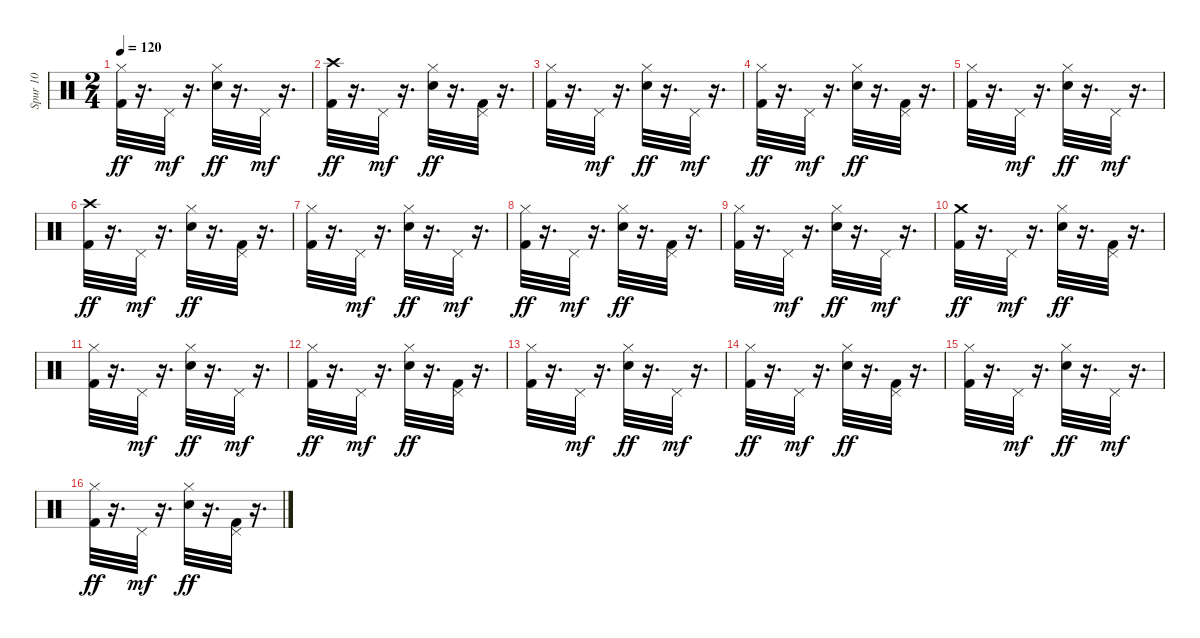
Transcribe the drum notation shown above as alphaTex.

\track ("Spur 10" "Spur 10") {instrument percussion}
\staff {score}
\articulation defaults
\ts (2 4)
\tempo 120
\clef neutral
\ks c
("Hi-Hat (closed)" "Kick (hit) 2").32{dy ff} r.16{d} "Pedal Hi-Hat (hit)".32{dy mf} r.16{d} ("Hi-Hat (closed)" "Snare (hit) 2").32{dy ff} r.16{d} "Pedal Hi-Hat (hit)".32{dy mf} r.16{d} |
("Crash high (hit)" "Kick (hit) 2").32{dy ff} r.16{d} "Pedal Hi-Hat (hit)".32{dy mf} r.16{d} ("Hi-Hat (closed)" "Snare (hit) 2").32{dy ff} r.16{d} ("Pedal Hi-Hat (hit)" "Kick (hit) 2").32 r.16{d} |
("Hi-Hat (closed)" "Kick (hit) 2").32 r.16{d} "Pedal Hi-Hat (hit)".32{dy mf} r.16{d} ("Hi-Hat (closed)" "Snare (hit) 2").32{dy ff} r.16{d} "Pedal Hi-Hat (hit)".32{dy mf} r.16{d} |
("Hi-Hat (closed)" "Kick (hit) 2").32{dy ff} r.16{d} "Pedal Hi-Hat (hit)".32{dy mf} r.16{d} ("Hi-Hat (closed)" "Snare (hit) 2").32{dy ff} r.16{d} ("Pedal Hi-Hat (hit)" "Kick (hit) 2").32 r.16{d} |
("Hi-Hat (closed)" "Kick (hit) 2").32 r.16{d} "Pedal Hi-Hat (hit)".32{dy mf} r.16{d} ("Hi-Hat (closed)" "Snare (hit) 2").32{dy ff} r.16{d} "Pedal Hi-Hat (hit)".32{dy mf} r.16{d} |
("Crash high (hit)" "Kick (hit) 2").32{dy ff} r.16{d} "Pedal Hi-Hat (hit)".32{dy mf} r.16{d} ("Hi-Hat (closed)" "Snare (hit) 2").32{dy ff} r.16{d} ("Pedal Hi-Hat (hit)" "Kick (hit) 2").32 r.16{d} |
("Hi-Hat (closed)" "Kick (hit) 2").32 r.16{d} "Pedal Hi-Hat (hit)".32{dy mf} r.16{d} ("Hi-Hat (closed)" "Snare (hit) 2").32{dy ff} r.16{d} "Pedal Hi-Hat (hit)".32{dy mf} r.16{d} |
("Hi-Hat (closed)" "Kick (hit) 2").32{dy ff} r.16{d} "Pedal Hi-Hat (hit)".32{dy mf} r.16{d} ("Hi-Hat (closed)" "Snare (hit) 2").32{dy ff} r.16{d} ("Pedal Hi-Hat (hit)" "Kick (hit) 2").32 r.16{d} |
("Hi-Hat (closed)" "Kick (hit) 2").32 r.16{d} "Pedal Hi-Hat (hit)".32{dy mf} r.16{d} ("Hi-Hat (closed)" "Snare (hit) 2").32{dy ff} r.16{d} "Pedal Hi-Hat (hit)".32{dy mf} r.16{d} |
("Crash medium (hit)" "Kick (hit) 2").32{dy ff} r.16{d} "Pedal Hi-Hat (hit)".32{dy mf} r.16{d} ("Hi-Hat (closed)" "Snare (hit) 2").32{dy ff} r.16{d} ("Pedal Hi-Hat (hit)" "Kick (hit) 2").32 r.16{d} |
("Hi-Hat (closed)" "Kick (hit) 2").32 r.16{d} "Pedal Hi-Hat (hit)".32{dy mf} r.16{d} ("Hi-Hat (closed)" "Snare (hit) 2").32{dy ff} r.16{d} "Pedal Hi-Hat (hit)".32{dy mf} r.16{d} |
("Hi-Hat (closed)" "Kick (hit) 2").32{dy ff} r.16{d} "Pedal Hi-Hat (hit)".32{dy mf} r.16{d} ("Hi-Hat (closed)" "Snare (hit) 2").32{dy ff} r.16{d} ("Pedal Hi-Hat (hit)" "Kick (hit) 2").32 r.16{d} |
("Hi-Hat (closed)" "Kick (hit) 2").32 r.16{d} "Pedal Hi-Hat (hit)".32{dy mf} r.16{d} ("Hi-Hat (closed)" "Snare (hit) 2").32{dy ff} r.16{d} "Pedal Hi-Hat (hit)".32{dy mf} r.16{d} |
("Hi-Hat (closed)" "Kick (hit) 2").32{dy ff} r.16{d} "Pedal Hi-Hat (hit)".32{dy mf} r.16{d} ("Hi-Hat (closed)" "Snare (hit) 2").32{dy ff} r.16{d} ("Pedal Hi-Hat (hit)" "Kick (hit) 2").32 r.16{d} |
("Hi-Hat (closed)" "Kick (hit) 2").32 r.16{d} "Pedal Hi-Hat (hit)".32{dy mf} r.16{d} ("Hi-Hat (closed)" "Snare (hit) 2").32{dy ff} r.16{d} "Pedal Hi-Hat (hit)".32{dy mf} r.16{d} |
("Hi-Hat (closed)" "Kick (hit) 2").32{dy ff} r.16{d} "Pedal Hi-Hat (hit)".32{dy mf} r.16{d} ("Hi-Hat (closed)" "Snare (hit) 2").32{dy ff} r.16{d} ("Pedal Hi-Hat (hit)" "Kick (hit) 2").32 r.16{d}
